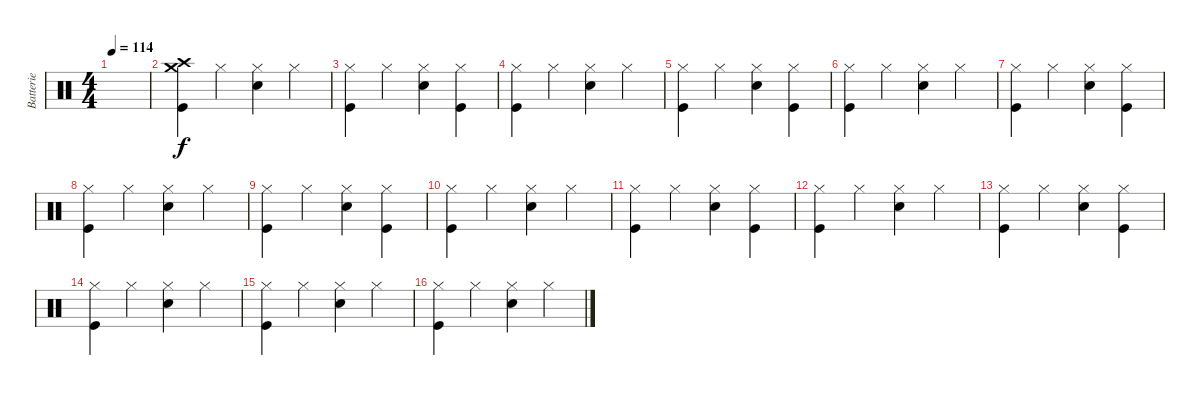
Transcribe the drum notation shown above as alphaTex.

\track ("Batterie" "Batterie") {instrument percussion}
\staff {score}
\articulation defaults
\ts (4 4)
\tempo 114
\clef neutral
\ks c
|
("Crash medium (hit)" "Crash high (hit)" "Kick (hit)").4 "Hi-Hat (closed)".4 ("Hi-Hat (closed)" "Snare (hit) 2").4 "Hi-Hat (closed)".4 |
("Hi-Hat (closed)" "Kick (hit)").4 "Hi-Hat (closed)".4 ("Hi-Hat (closed)" "Snare (hit) 2").4 ("Hi-Hat (closed)" "Kick (hit)").4 |
("Hi-Hat (closed)" "Kick (hit)").4 "Hi-Hat (closed)".4 ("Hi-Hat (closed)" "Snare (hit) 2").4 "Hi-Hat (closed)".4 |
("Hi-Hat (closed)" "Kick (hit)").4 "Hi-Hat (closed)".4 ("Hi-Hat (closed)" "Snare (hit) 2").4 ("Hi-Hat (closed)" "Kick (hit)").4 |
("Hi-Hat (closed)" "Kick (hit)").4 "Hi-Hat (closed)".4 ("Hi-Hat (closed)" "Snare (hit) 2").4 "Hi-Hat (closed)".4 |
("Hi-Hat (closed)" "Kick (hit)").4 "Hi-Hat (closed)".4 ("Hi-Hat (closed)" "Snare (hit) 2").4 ("Hi-Hat (closed)" "Kick (hit)").4 |
("Hi-Hat (closed)" "Kick (hit)").4 "Hi-Hat (closed)".4 ("Hi-Hat (closed)" "Snare (hit) 2").4 "Hi-Hat (closed)".4 |
("Hi-Hat (closed)" "Kick (hit)").4 "Hi-Hat (closed)".4 ("Hi-Hat (closed)" "Snare (hit) 2").4 ("Hi-Hat (closed)" "Kick (hit)").4 |
("Hi-Hat (closed)" "Kick (hit)").4 "Hi-Hat (closed)".4 ("Hi-Hat (closed)" "Snare (hit) 2").4 "Hi-Hat (closed)".4 |
("Hi-Hat (closed)" "Kick (hit)").4 "Hi-Hat (closed)".4 ("Hi-Hat (closed)" "Snare (hit) 2").4 ("Hi-Hat (closed)" "Kick (hit)").4 |
("Hi-Hat (closed)" "Kick (hit)").4 "Hi-Hat (closed)".4 ("Hi-Hat (closed)" "Snare (hit) 2").4 "Hi-Hat (closed)".4 |
("Hi-Hat (closed)" "Kick (hit)").4 "Hi-Hat (closed)".4 ("Hi-Hat (closed)" "Snare (hit) 2").4 ("Hi-Hat (closed)" "Kick (hit)").4 |
("Hi-Hat (closed)" "Kick (hit)").4 "Hi-Hat (closed)".4 ("Hi-Hat (closed)" "Snare (hit) 2").4 "Hi-Hat (closed)".4 |
("Hi-Hat (closed)" "Kick (hit)").4 "Hi-Hat (closed)".4 ("Hi-Hat (closed)" "Snare (hit) 2").4 "Hi-Hat (closed)".4 |
("Hi-Hat (closed)" "Kick (hit)").4 "Hi-Hat (closed)".4 ("Hi-Hat (closed)" "Snare (hit) 2").4 "Hi-Hat (closed)".4
